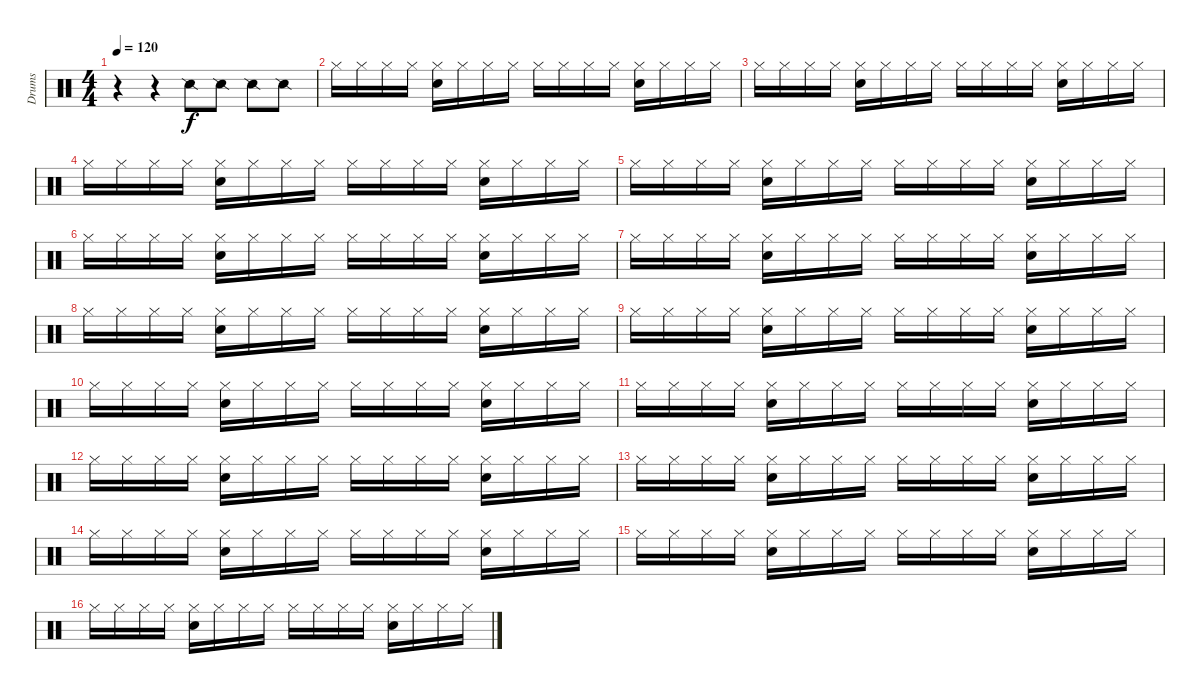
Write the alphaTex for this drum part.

\track ("Drums" "Drums") {instrument percussion}
\staff {score}
\articulation defaults
\ts (4 4)
\tempo 120
\clef neutral
\ks c
r.4{dy f} r.4 "Snare (side stick) 2".8 "Snare (side stick) 2".8 "Snare (side stick) 2".8 "Snare (side stick) 2".8 |
"Hi-Hat (closed)".16 "Hi-Hat (closed)".16 "Hi-Hat (closed)".16 "Hi-Hat (closed)".16 ("Hi-Hat (closed)" "Electric Snare (hit)").16 "Hi-Hat (closed)".16 "Hi-Hat (closed)".16 "Hi-Hat (closed)".16 "Hi-Hat (closed)".16 "Hi-Hat (closed)".16 "Hi-Hat (closed)".16 "Hi-Hat (closed)".16 ("Hi-Hat (closed)" "Electric Snare (hit)").16 "Hi-Hat (closed)".16 "Hi-Hat (closed)".16 "Hi-Hat (closed)".16 |
"Hi-Hat (closed)".16 "Hi-Hat (closed)".16 "Hi-Hat (closed)".16 "Hi-Hat (closed)".16 ("Hi-Hat (closed)" "Electric Snare (hit)").16 "Hi-Hat (closed)".16 "Hi-Hat (closed)".16 "Hi-Hat (closed)".16 "Hi-Hat (closed)".16 "Hi-Hat (closed)".16 "Hi-Hat (closed)".16 "Hi-Hat (closed)".16 ("Hi-Hat (closed)" "Electric Snare (hit)").16 "Hi-Hat (closed)".16 "Hi-Hat (closed)".16 "Hi-Hat (closed)".16 |
"Hi-Hat (closed)".16 "Hi-Hat (closed)".16 "Hi-Hat (closed)".16 "Hi-Hat (closed)".16 ("Hi-Hat (closed)" "Electric Snare (hit)").16 "Hi-Hat (closed)".16 "Hi-Hat (closed)".16 "Hi-Hat (closed)".16 "Hi-Hat (closed)".16 "Hi-Hat (closed)".16 "Hi-Hat (closed)".16 "Hi-Hat (closed)".16 ("Hi-Hat (closed)" "Electric Snare (hit)").16 "Hi-Hat (closed)".16 "Hi-Hat (closed)".16 "Hi-Hat (closed)".16 |
"Hi-Hat (closed)".16 "Hi-Hat (closed)".16 "Hi-Hat (closed)".16 "Hi-Hat (closed)".16 ("Hi-Hat (closed)" "Electric Snare (hit)").16 "Hi-Hat (closed)".16 "Hi-Hat (closed)".16 "Hi-Hat (closed)".16 "Hi-Hat (closed)".16 "Hi-Hat (closed)".16 "Hi-Hat (closed)".16 "Hi-Hat (closed)".16 ("Hi-Hat (closed)" "Electric Snare (hit)").16 "Hi-Hat (closed)".16 "Hi-Hat (closed)".16 "Hi-Hat (closed)".16 |
"Hi-Hat (closed)".16 "Hi-Hat (closed)".16 "Hi-Hat (closed)".16 "Hi-Hat (closed)".16 ("Hi-Hat (closed)" "Electric Snare (hit)").16 "Hi-Hat (closed)".16 "Hi-Hat (closed)".16 "Hi-Hat (closed)".16 "Hi-Hat (closed)".16 "Hi-Hat (closed)".16 "Hi-Hat (closed)".16 "Hi-Hat (closed)".16 ("Hi-Hat (closed)" "Electric Snare (hit)").16 "Hi-Hat (closed)".16 "Hi-Hat (closed)".16 "Hi-Hat (closed)".16 |
"Hi-Hat (closed)".16 "Hi-Hat (closed)".16 "Hi-Hat (closed)".16 "Hi-Hat (closed)".16 ("Hi-Hat (closed)" "Electric Snare (hit)").16 "Hi-Hat (closed)".16 "Hi-Hat (closed)".16 "Hi-Hat (closed)".16 "Hi-Hat (closed)".16 "Hi-Hat (closed)".16 "Hi-Hat (closed)".16 "Hi-Hat (closed)".16 ("Hi-Hat (closed)" "Electric Snare (hit)").16 "Hi-Hat (closed)".16 "Hi-Hat (closed)".16 "Hi-Hat (closed)".16 |
"Hi-Hat (closed)".16 "Hi-Hat (closed)".16 "Hi-Hat (closed)".16 "Hi-Hat (closed)".16 ("Hi-Hat (closed)" "Electric Snare (hit)").16 "Hi-Hat (closed)".16 "Hi-Hat (closed)".16 "Hi-Hat (closed)".16 "Hi-Hat (closed)".16 "Hi-Hat (closed)".16 "Hi-Hat (closed)".16 "Hi-Hat (closed)".16 ("Hi-Hat (closed)" "Electric Snare (hit)").16 "Hi-Hat (closed)".16 "Hi-Hat (closed)".16 "Hi-Hat (closed)".16 |
"Hi-Hat (closed)".16 "Hi-Hat (closed)".16 "Hi-Hat (closed)".16 "Hi-Hat (closed)".16 ("Hi-Hat (closed)" "Electric Snare (hit)").16 "Hi-Hat (closed)".16 "Hi-Hat (closed)".16 "Hi-Hat (closed)".16 "Hi-Hat (closed)".16 "Hi-Hat (closed)".16 "Hi-Hat (closed)".16 "Hi-Hat (closed)".16 ("Hi-Hat (closed)" "Electric Snare (hit)").16 "Hi-Hat (closed)".16 "Hi-Hat (closed)".16 "Hi-Hat (closed)".16 |
"Hi-Hat (closed)".16 "Hi-Hat (closed)".16 "Hi-Hat (closed)".16 "Hi-Hat (closed)".16 ("Hi-Hat (closed)" "Electric Snare (hit)").16 "Hi-Hat (closed)".16 "Hi-Hat (closed)".16 "Hi-Hat (closed)".16 "Hi-Hat (closed)".16 "Hi-Hat (closed)".16 "Hi-Hat (closed)".16 "Hi-Hat (closed)".16 ("Hi-Hat (closed)" "Electric Snare (hit)").16 "Hi-Hat (closed)".16 "Hi-Hat (closed)".16 "Hi-Hat (closed)".16 |
"Hi-Hat (closed)".16 "Hi-Hat (closed)".16 "Hi-Hat (closed)".16 "Hi-Hat (closed)".16 ("Hi-Hat (closed)" "Electric Snare (hit)").16 "Hi-Hat (closed)".16 "Hi-Hat (closed)".16 "Hi-Hat (closed)".16 "Hi-Hat (closed)".16 "Hi-Hat (closed)".16 "Hi-Hat (closed)".16 "Hi-Hat (closed)".16 ("Hi-Hat (closed)" "Electric Snare (hit)").16 "Hi-Hat (closed)".16 "Hi-Hat (closed)".16 "Hi-Hat (closed)".16 |
"Hi-Hat (closed)".16 "Hi-Hat (closed)".16 "Hi-Hat (closed)".16 "Hi-Hat (closed)".16 ("Hi-Hat (closed)" "Electric Snare (hit)").16 "Hi-Hat (closed)".16 "Hi-Hat (closed)".16 "Hi-Hat (closed)".16 "Hi-Hat (closed)".16 "Hi-Hat (closed)".16 "Hi-Hat (closed)".16 "Hi-Hat (closed)".16 ("Hi-Hat (closed)" "Electric Snare (hit)").16 "Hi-Hat (closed)".16 "Hi-Hat (closed)".16 "Hi-Hat (closed)".16 |
"Hi-Hat (closed)".16 "Hi-Hat (closed)".16 "Hi-Hat (closed)".16 "Hi-Hat (closed)".16 ("Hi-Hat (closed)" "Electric Snare (hit)").16 "Hi-Hat (closed)".16 "Hi-Hat (closed)".16 "Hi-Hat (closed)".16 "Hi-Hat (closed)".16 "Hi-Hat (closed)".16 "Hi-Hat (closed)".16 "Hi-Hat (closed)".16 ("Hi-Hat (closed)" "Electric Snare (hit)").16 "Hi-Hat (closed)".16 "Hi-Hat (closed)".16 "Hi-Hat (closed)".16 |
"Hi-Hat (closed)".16 "Hi-Hat (closed)".16 "Hi-Hat (closed)".16 "Hi-Hat (closed)".16 ("Hi-Hat (closed)" "Electric Snare (hit)").16 "Hi-Hat (closed)".16 "Hi-Hat (closed)".16 "Hi-Hat (closed)".16 "Hi-Hat (closed)".16 "Hi-Hat (closed)".16 "Hi-Hat (closed)".16 "Hi-Hat (closed)".16 ("Hi-Hat (closed)" "Electric Snare (hit)").16 "Hi-Hat (closed)".16 "Hi-Hat (closed)".16 "Hi-Hat (closed)".16 |
"Hi-Hat (closed)".16 "Hi-Hat (closed)".16 "Hi-Hat (closed)".16 "Hi-Hat (closed)".16 ("Hi-Hat (closed)" "Electric Snare (hit)").16 "Hi-Hat (closed)".16 "Hi-Hat (closed)".16 "Hi-Hat (closed)".16 "Hi-Hat (closed)".16 "Hi-Hat (closed)".16 "Hi-Hat (closed)".16 "Hi-Hat (closed)".16 ("Hi-Hat (closed)" "Electric Snare (hit)").16 "Hi-Hat (closed)".16 "Hi-Hat (closed)".16 "Hi-Hat (closed)".16 |
"Hi-Hat (closed)".16 "Hi-Hat (closed)".16 "Hi-Hat (closed)".16 "Hi-Hat (closed)".16 ("Hi-Hat (closed)" "Electric Snare (hit)").16 "Hi-Hat (closed)".16 "Hi-Hat (closed)".16 "Hi-Hat (closed)".16 "Hi-Hat (closed)".16 "Hi-Hat (closed)".16 "Hi-Hat (closed)".16 "Hi-Hat (closed)".16 ("Hi-Hat (closed)" "Electric Snare (hit)").16 "Hi-Hat (closed)".16 "Hi-Hat (closed)".16 "Hi-Hat (closed)".16
